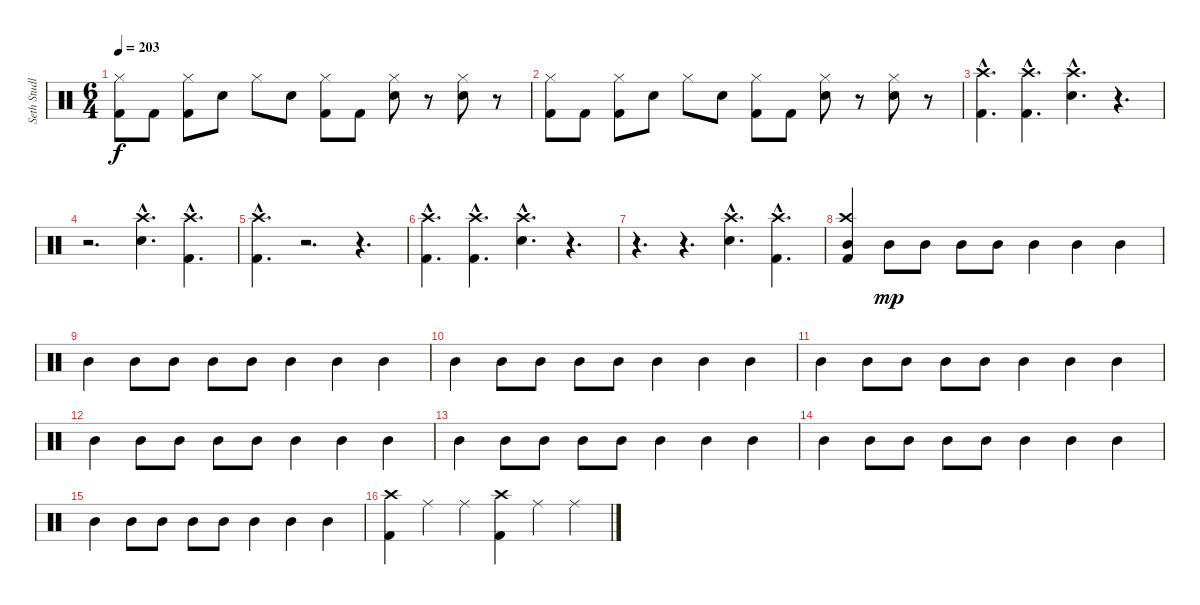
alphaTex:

\track ("Seth Studley (Drums)" "Seth Studl") {instrument percussion}
\staff {score}
\articulation defaults
\ts (6 4)
\tempo 203
\clef neutral
\ks c
("Hi-Hat (closed)" "Kick (hit) 2").8{dy f} "Kick (hit) 2".8 ("Hi-Hat (closed)" "Kick (hit) 2").8 "Electric Snare (hit)".8 "Hi-Hat (closed)".8 "Electric Snare (hit)".8 ("Hi-Hat (closed)" "Kick (hit) 2").8 "Kick (hit) 2".8 ("Hi-Hat (closed)" "Electric Snare (hit)").8 r.8 ("Hi-Hat (closed)" "Electric Snare (hit)").8 r.8 |
("Hi-Hat (closed)" "Kick (hit) 2").8 "Kick (hit) 2".8 ("Hi-Hat (closed)" "Kick (hit) 2").8 "Electric Snare (hit)".8 "Hi-Hat (closed)".8 "Electric Snare (hit)".8 ("Hi-Hat (closed)" "Kick (hit) 2").8 "Kick (hit) 2".8 ("Hi-Hat (closed)" "Electric Snare (hit)").8 r.8 ("Hi-Hat (closed)" "Electric Snare (hit)").8 r.8 |
("Crash high (hit)"{hac} "Kick (hit) 2"{hac}).4{d} ("Crash high (hit)"{hac} "Kick (hit) 2"{hac}).4{d} ("Crash high (hit)"{hac} "Electric Snare (hit)"{hac}).4{d} r.4{d} |
r.2{d} ("Crash high (hit)"{hac} "Electric Snare (hit)"{hac}).4{d} ("Crash high (hit)"{hac} "Kick (hit) 2"{hac}).4{d} |
("Crash high (hit)"{hac} "Kick (hit) 2"{hac}).4{d} r.2{d} r.4{d} |
("Crash high (hit)"{hac} "Kick (hit) 2"{hac}).4{d} ("Crash high (hit)"{hac} "Kick (hit) 2"{hac}).4{d} ("Crash high (hit)"{hac} "Electric Snare (hit)"{hac}).4{d} r.4{d} |
r.4{d} r.4{d} ("Crash high (hit)"{hac} "Electric Snare (hit)"{hac}).4{d} ("Crash high (hit)"{hac} "Kick (hit) 2"{hac}).4{d} |
("Crash high (hit)" "Mid Tom (hit)" "Kick (hit) 2").4 "Mid Tom (hit)".8{dy mp} "Mid Tom (hit)".8 "Mid Tom (hit)".8 "Mid Tom (hit)".8 "Mid Tom (hit)".4 "Mid Tom (hit)".4 "Mid Tom (hit)".4 |
"Mid Tom (hit)".4 "Mid Tom (hit)".8 "Mid Tom (hit)".8 "Mid Tom (hit)".8 "Mid Tom (hit)".8 "Mid Tom (hit)".4 "Mid Tom (hit)".4 "Mid Tom (hit)".4 |
"Mid Tom (hit)".4 "Mid Tom (hit)".8 "Mid Tom (hit)".8 "Mid Tom (hit)".8 "Mid Tom (hit)".8 "Mid Tom (hit)".4 "Mid Tom (hit)".4 "Mid Tom (hit)".4 |
"Mid Tom (hit)".4 "Mid Tom (hit)".8 "Mid Tom (hit)".8 "Mid Tom (hit)".8 "Mid Tom (hit)".8 "Mid Tom (hit)".4 "Mid Tom (hit)".4 "Mid Tom (hit)".4 |
"Mid Tom (hit)".4 "Mid Tom (hit)".8 "Mid Tom (hit)".8 "Mid Tom (hit)".8 "Mid Tom (hit)".8 "Mid Tom (hit)".4 "Mid Tom (hit)".4 "Mid Tom (hit)".4 |
"Mid Tom (hit)".4 "Mid Tom (hit)".8 "Mid Tom (hit)".8 "Mid Tom (hit)".8 "Mid Tom (hit)".8 "Mid Tom (hit)".4 "Mid Tom (hit)".4 "Mid Tom (hit)".4 |
"Mid Tom (hit)".4 "Mid Tom (hit)".8 "Mid Tom (hit)".8 "Mid Tom (hit)".8 "Mid Tom (hit)".8 "Mid Tom (hit)".4 "Mid Tom (hit)".4 "Mid Tom (hit)".4 |
"Mid Tom (hit)".4 "Mid Tom (hit)".8 "Mid Tom (hit)".8 "Mid Tom (hit)".8 "Mid Tom (hit)".8 "Mid Tom (hit)".4 "Mid Tom (hit)".4 "Mid Tom (hit)".4 |
("Crash high (hit)" "Kick (hit) 2").4 "Ride (middle)".4 "Ride (middle)".4 ("Crash high (hit)" "Kick (hit) 2").4 "Ride (middle)".4 "Ride (middle)".4
